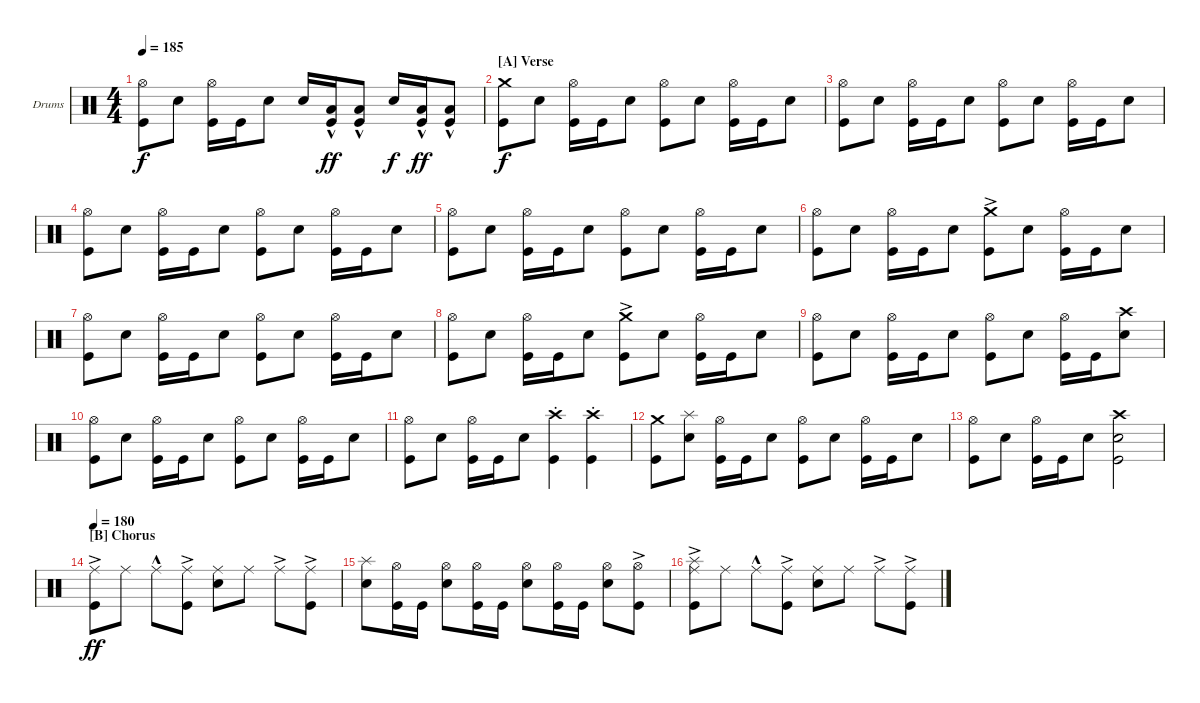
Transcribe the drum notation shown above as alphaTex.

\bracketExtendMode groupsimilarinstruments
\firstSystemTrackNameOrientation horizontal
\otherSystemsTrackNameOrientation horizontal
\track ("Drumkit" "Drums") {instrument percussion}
\staff {score}
\articulation defaults
\ts (4 4)
\tempo 185
\clef neutral
\scale
1.02648
\ks c
("Kick (hit)" "Hi-Hat (open)").8{dy f} "Snare (hit) 2".8 ("Kick (hit)" "Hi-Hat (open)").16 "Kick (hit)".16 "Snare (hit) 2".8 "Snare (hit) 2".16 ("Low Tom (hit)"{hac} "Kick (hit)").16{dy ff} ("Low Tom (hit)"{hac} "Kick (hit)").8 "Snare (hit) 2".16{dy f} ("Low Tom (hit)"{hac} "Kick (hit)").16{dy ff} ("Low Tom (hit)"{hac} "Kick (hit)").8 |
\section ("A" "Verse")
\scale
0.973518 ("Kick (hit)" "Crash medium (hit)").8{dy f} "Snare (hit) 2".8 ("Kick (hit)" "Hi-Hat (open)").16 "Kick (hit)".16 "Snare (hit) 2".8 ("Kick (hit)" "Hi-Hat (open)").8 "Snare (hit) 2".8 ("Kick (hit)" "Hi-Hat (open)").16 "Kick (hit)".16 "Snare (hit) 2".8 |
\scale
1.02648 ("Kick (hit)" "Hi-Hat (open)").8 "Snare (hit) 2".8 ("Kick (hit)" "Hi-Hat (open)").16 "Kick (hit)".16 "Snare (hit) 2".8 ("Kick (hit)" "Hi-Hat (open)").8 "Snare (hit) 2".8 ("Kick (hit)" "Hi-Hat (open)").16 "Kick (hit)".16 "Snare (hit) 2".8 |
\scale
0.973518 ("Kick (hit)" "Hi-Hat (open)").8 "Snare (hit) 2".8 ("Kick (hit)" "Hi-Hat (open)").16 "Kick (hit)".16 "Snare (hit) 2".8 ("Kick (hit)" "Hi-Hat (open)").8 "Snare (hit) 2".8 ("Kick (hit)" "Hi-Hat (open)").16 "Kick (hit)".16 "Snare (hit) 2".8 |
\scale
1.02648 ("Kick (hit)" "Hi-Hat (open)").8 "Snare (hit) 2".8 ("Kick (hit)" "Hi-Hat (open)").16 "Kick (hit)".16 "Snare (hit) 2".8 ("Kick (hit)" "Hi-Hat (open)").8 "Snare (hit) 2".8 ("Kick (hit)" "Hi-Hat (open)").16 "Kick (hit)".16 "Snare (hit) 2".8 |
\scale
0.973518 ("Kick (hit)" "Hi-Hat (open)").8 "Snare (hit) 2".8 ("Kick (hit)" "Hi-Hat (open)").16 "Kick (hit)".16 "Snare (hit) 2".8 ("Kick (hit)" "Crash medium (hit)"{ac}).8 "Snare (hit) 2".8 ("Kick (hit)" "Hi-Hat (open)").16 "Kick (hit)".16 "Snare (hit) 2".8 |
\scale
1.02648 ("Kick (hit)" "Hi-Hat (open)").8 "Snare (hit) 2".8 ("Kick (hit)" "Hi-Hat (open)").16 "Kick (hit)".16 "Snare (hit) 2".8 ("Kick (hit)" "Hi-Hat (open)").8 "Snare (hit) 2".8 ("Kick (hit)" "Hi-Hat (open)").16 "Kick (hit)".16 "Snare (hit) 2".8 |
\scale
0.973518 ("Kick (hit)" "Hi-Hat (open)").8 "Snare (hit) 2".8 ("Kick (hit)" "Hi-Hat (open)").16 "Kick (hit)".16 "Snare (hit) 2".8 ("Kick (hit)" "Crash medium (hit)"{ac}).8 "Snare (hit) 2".8 ("Kick (hit)" "Hi-Hat (open)").16 "Kick (hit)".16 "Snare (hit) 2".8 |
\scale
1.02648 ("Kick (hit)" "Hi-Hat (open)").8 "Snare (hit) 2".8 ("Kick (hit)" "Hi-Hat (open)").16 "Kick (hit)".16 "Snare (hit) 2".8 ("Kick (hit)" "Hi-Hat (open)").8 "Snare (hit) 2".8 ("Kick (hit)" "Hi-Hat (open)").16 "Kick (hit)".16 ("Snare (hit) 2" "Crash high (hit)").8 |
\scale
0.973518 ("Kick (hit)" "Hi-Hat (open)").8 "Snare (hit) 2".8 ("Kick (hit)" "Hi-Hat (open)").16 "Kick (hit)".16 "Snare (hit) 2".8 ("Kick (hit)" "Hi-Hat (open)").8 "Snare (hit) 2".8 ("Kick (hit)" "Hi-Hat (open)").16 "Kick (hit)".16 "Snare (hit) 2".8 |
\scale
1.02648 ("Kick (hit)" "Hi-Hat (open)").8 "Snare (hit) 2".8 ("Kick (hit)" "Hi-Hat (open)").16 "Kick (hit)".16 "Snare (hit) 2".8 ("Kick (hit)" "Crash high (hit)"{st}).4 ("Kick (hit)" "Crash high (hit)"{st}).4 |
\scale
0.973518 ("Kick (hit)" "Crash medium (hit)").8 ("Snare (hit) 2" "Splash (hit)").8 ("Kick (hit)" "Hi-Hat (open)").16 "Kick (hit)".16 "Snare (hit) 2".8 ("Kick (hit)" "Hi-Hat (open)").8 "Snare (hit) 2".8 ("Kick (hit)" "Hi-Hat (open)").16 "Kick (hit)".16 "Snare (hit) 2".8 |
\scale
1.02648 ("Kick (hit)" "Hi-Hat (open)").8 "Snare (hit) 2".8 ("Kick (hit)" "Hi-Hat (open)").16 "Kick (hit)".16 "Snare (hit) 2".8 ("Kick (hit)" "Crash high (hit)" "Snare (hit) 2").2 |
\section ("B" "Chorus")
\tempo 180
\scale
0.973518 ("Kick (hit)"{ac} "Ride (middle)").8{dy ff} "Ride (middle)".8 "Ride (middle)"{hac}.8 ("Ride (middle)" "Kick (hit)"{ac}).8 ("Ride (middle)" "Snare (hit) 2").8 "Ride (middle)".8 "Ride (middle)"{ac}.8 ("Ride (middle)" "Kick (hit)"{ac}).8 |
\scale
1.02648 ("Snare (hit) 2" "Splash (hit)").8 ("Kick (hit)" "Hi-Hat (open)").16 "Kick (hit)".16 ("Snare (hit) 2" "Hi-Hat (open)").8 ("Kick (hit)" "Hi-Hat (open)").16 "Kick (hit)".16 ("Snare (hit) 2" "Hi-Hat (open)").8 ("Kick (hit)" "Hi-Hat (open)").16 "Kick (hit)".16 ("Snare (hit) 2" "Hi-Hat (open)").8 ("Kick (hit)"{ac} "Hi-Hat (open)").8 |
\scale
0.973518 ("Kick (hit)"{ac} "Ride (middle)" "Splash (hit)").8 "Ride (middle)".8 "Ride (middle)"{hac}.8 ("Ride (middle)" "Kick (hit)"{ac}).8 ("Ride (middle)" "Snare (hit) 2").8 "Ride (middle)".8 "Ride (middle)"{ac}.8 ("Ride (middle)" "Kick (hit)"{ac}).8
